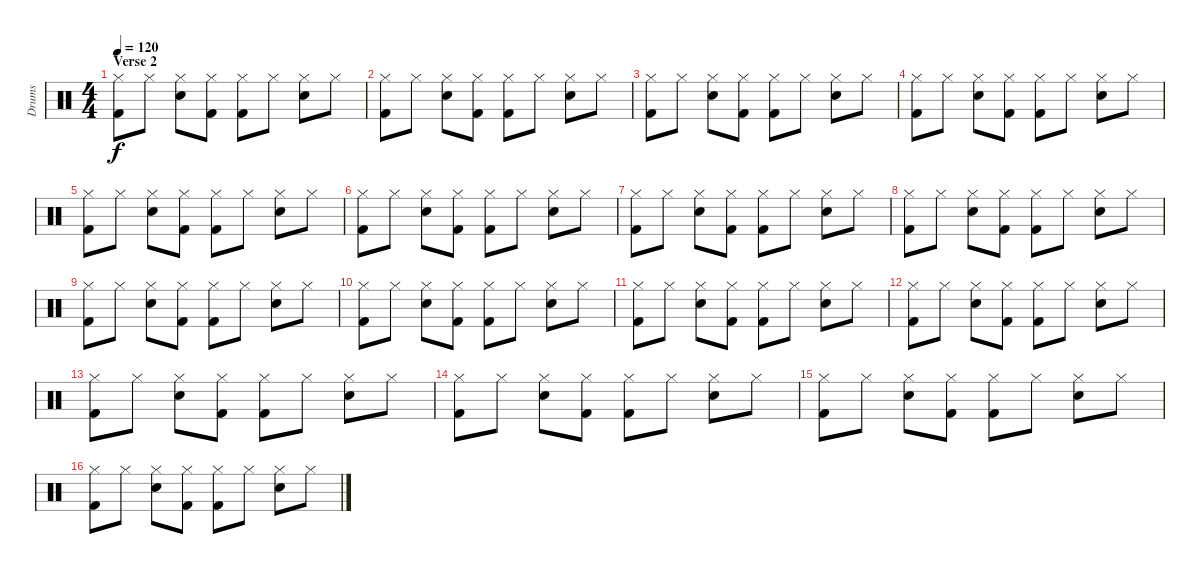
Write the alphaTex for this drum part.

\track ("Drums" "Drums") {instrument percussion}
\staff {score}
\articulation defaults
\ts (4 4)
\section ("" "Verse 2")
\tempo 120
\clef neutral
\ks c
("Hi-Hat (closed)" "Kick (hit) 2").8{dy f} "Hi-Hat (closed)".8 ("Hi-Hat (closed)" "Snare (hit) 2").8 ("Hi-Hat (closed)" "Kick (hit) 2").8 ("Hi-Hat (closed)" "Kick (hit) 2").8 "Hi-Hat (closed)".8 ("Hi-Hat (closed)" "Snare (hit) 2").8 "Hi-Hat (closed)".8 |
("Hi-Hat (closed)" "Kick (hit) 2").8 "Hi-Hat (closed)".8 ("Hi-Hat (closed)" "Snare (hit) 2").8 ("Hi-Hat (closed)" "Kick (hit) 2").8 ("Hi-Hat (closed)" "Kick (hit) 2").8 "Hi-Hat (closed)".8 ("Hi-Hat (closed)" "Snare (hit) 2").8 "Hi-Hat (closed)".8 |
("Hi-Hat (closed)" "Kick (hit) 2").8 "Hi-Hat (closed)".8 ("Hi-Hat (closed)" "Snare (hit) 2").8 ("Hi-Hat (closed)" "Kick (hit) 2").8 ("Hi-Hat (closed)" "Kick (hit) 2").8 "Hi-Hat (closed)".8 ("Hi-Hat (closed)" "Snare (hit) 2").8 "Hi-Hat (closed)".8 |
("Hi-Hat (closed)" "Kick (hit) 2").8 "Hi-Hat (closed)".8 ("Hi-Hat (closed)" "Snare (hit) 2").8 ("Hi-Hat (closed)" "Kick (hit) 2").8 ("Hi-Hat (closed)" "Kick (hit) 2").8 "Hi-Hat (closed)".8 ("Hi-Hat (closed)" "Snare (hit) 2").8 "Hi-Hat (closed)".8 |
("Hi-Hat (closed)" "Kick (hit) 2").8 "Hi-Hat (closed)".8 ("Hi-Hat (closed)" "Snare (hit) 2").8 ("Hi-Hat (closed)" "Kick (hit) 2").8 ("Hi-Hat (closed)" "Kick (hit) 2").8 "Hi-Hat (closed)".8 ("Hi-Hat (closed)" "Snare (hit) 2").8 "Hi-Hat (closed)".8 |
("Hi-Hat (closed)" "Kick (hit) 2").8 "Hi-Hat (closed)".8 ("Hi-Hat (closed)" "Snare (hit) 2").8 ("Hi-Hat (closed)" "Kick (hit) 2").8 ("Hi-Hat (closed)" "Kick (hit) 2").8 "Hi-Hat (closed)".8 ("Hi-Hat (closed)" "Snare (hit) 2").8 "Hi-Hat (closed)".8 |
("Hi-Hat (closed)" "Kick (hit) 2").8 "Hi-Hat (closed)".8 ("Hi-Hat (closed)" "Snare (hit) 2").8 ("Hi-Hat (closed)" "Kick (hit) 2").8 ("Hi-Hat (closed)" "Kick (hit) 2").8 "Hi-Hat (closed)".8 ("Hi-Hat (closed)" "Snare (hit) 2").8 "Hi-Hat (closed)".8 |
("Hi-Hat (closed)" "Kick (hit) 2").8 "Hi-Hat (closed)".8 ("Hi-Hat (closed)" "Snare (hit) 2").8 ("Hi-Hat (closed)" "Kick (hit) 2").8 ("Hi-Hat (closed)" "Kick (hit) 2").8 "Hi-Hat (closed)".8 ("Hi-Hat (closed)" "Snare (hit) 2").8 "Hi-Hat (closed)".8 |
("Hi-Hat (closed)" "Kick (hit) 2").8 "Hi-Hat (closed)".8 ("Hi-Hat (closed)" "Snare (hit) 2").8 ("Hi-Hat (closed)" "Kick (hit) 2").8 ("Hi-Hat (closed)" "Kick (hit) 2").8 "Hi-Hat (closed)".8 ("Hi-Hat (closed)" "Snare (hit) 2").8 "Hi-Hat (closed)".8 |
("Hi-Hat (closed)" "Kick (hit) 2").8 "Hi-Hat (closed)".8 ("Hi-Hat (closed)" "Snare (hit) 2").8 ("Hi-Hat (closed)" "Kick (hit) 2").8 ("Hi-Hat (closed)" "Kick (hit) 2").8 "Hi-Hat (closed)".8 ("Hi-Hat (closed)" "Snare (hit) 2").8 "Hi-Hat (closed)".8 |
("Hi-Hat (closed)" "Kick (hit) 2").8 "Hi-Hat (closed)".8 ("Hi-Hat (closed)" "Snare (hit) 2").8 ("Hi-Hat (closed)" "Kick (hit) 2").8 ("Hi-Hat (closed)" "Kick (hit) 2").8 "Hi-Hat (closed)".8 ("Hi-Hat (closed)" "Snare (hit) 2").8 "Hi-Hat (closed)".8 |
("Hi-Hat (closed)" "Kick (hit) 2").8 "Hi-Hat (closed)".8 ("Hi-Hat (closed)" "Snare (hit) 2").8 ("Hi-Hat (closed)" "Kick (hit) 2").8 ("Hi-Hat (closed)" "Kick (hit) 2").8 "Hi-Hat (closed)".8 ("Hi-Hat (closed)" "Snare (hit) 2").8 "Hi-Hat (closed)".8 |
("Hi-Hat (closed)" "Kick (hit) 2").8 "Hi-Hat (closed)".8 ("Hi-Hat (closed)" "Snare (hit) 2").8 ("Hi-Hat (closed)" "Kick (hit) 2").8 ("Hi-Hat (closed)" "Kick (hit) 2").8 "Hi-Hat (closed)".8 ("Hi-Hat (closed)" "Snare (hit) 2").8 "Hi-Hat (closed)".8 |
("Hi-Hat (closed)" "Kick (hit) 2").8 "Hi-Hat (closed)".8 ("Hi-Hat (closed)" "Snare (hit) 2").8 ("Hi-Hat (closed)" "Kick (hit) 2").8 ("Hi-Hat (closed)" "Kick (hit) 2").8 "Hi-Hat (closed)".8 ("Hi-Hat (closed)" "Snare (hit) 2").8 "Hi-Hat (closed)".8 |
("Hi-Hat (closed)" "Kick (hit) 2").8 "Hi-Hat (closed)".8 ("Hi-Hat (closed)" "Snare (hit) 2").8 ("Hi-Hat (closed)" "Kick (hit) 2").8 ("Hi-Hat (closed)" "Kick (hit) 2").8 "Hi-Hat (closed)".8 ("Hi-Hat (closed)" "Snare (hit) 2").8 "Hi-Hat (closed)".8 |
("Hi-Hat (closed)" "Kick (hit) 2").8 "Hi-Hat (closed)".8 ("Hi-Hat (closed)" "Snare (hit) 2").8 ("Hi-Hat (closed)" "Kick (hit) 2").8 ("Hi-Hat (closed)" "Kick (hit) 2").8 "Hi-Hat (closed)".8 ("Hi-Hat (closed)" "Snare (hit) 2").8 "Hi-Hat (closed)".8
